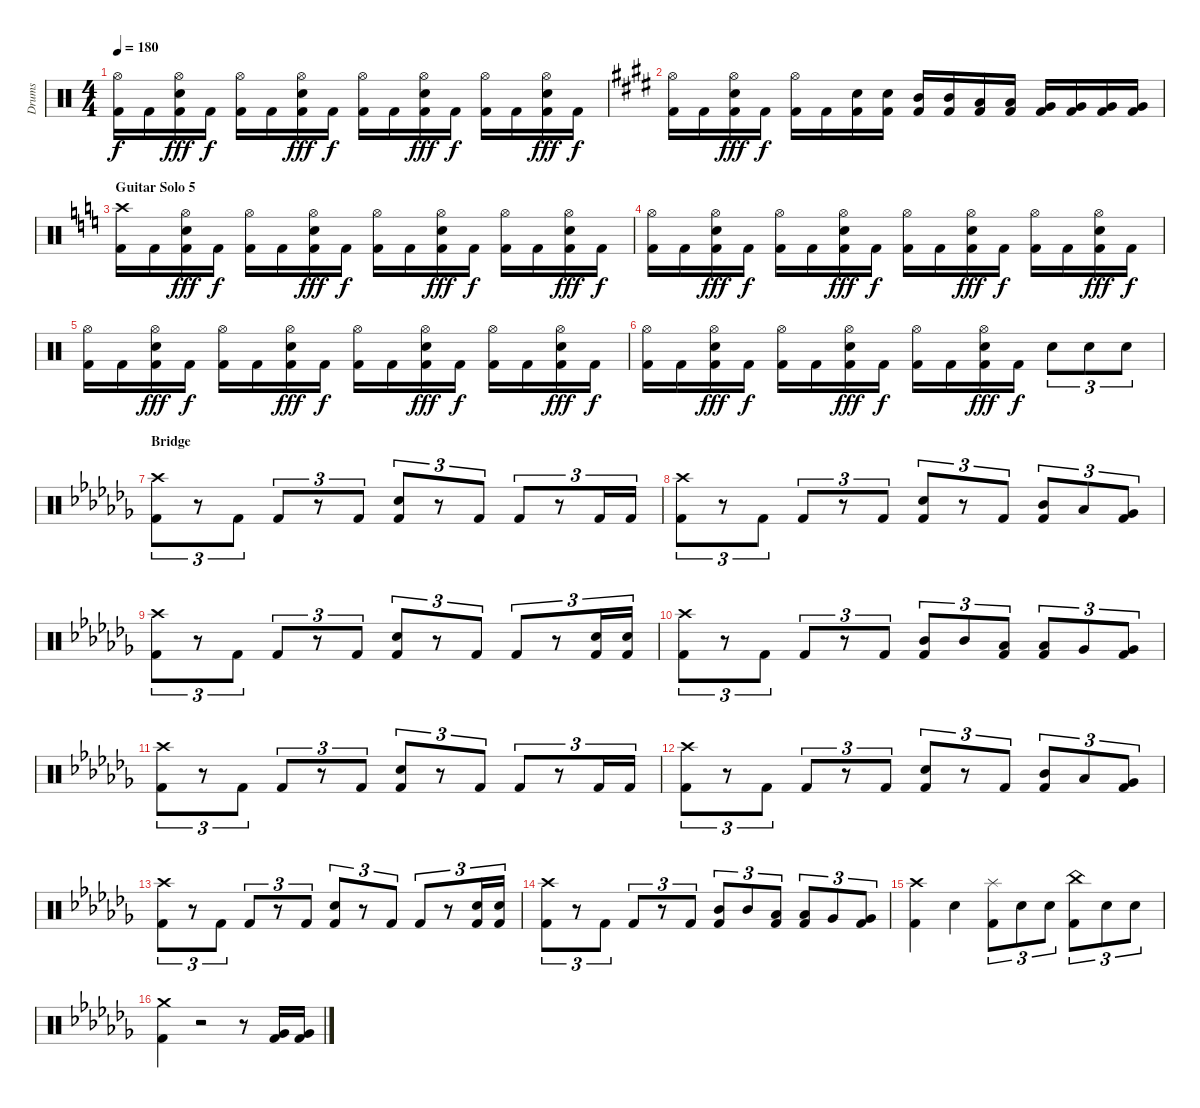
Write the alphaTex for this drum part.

\track ("Drums" "Drums") {instrument percussion}
\staff {score}
\articulation defaults
\ts (4 4)
\tempo 180
\clef neutral
\ks c
("Hi-Hat (open)" "Kick (hit) 2").16{dy f} "Kick (hit) 2".16 ("Hi-Hat (open)" "Snare (hit) 2" "Kick (hit) 2").16{dy fff} "Kick (hit) 2".16{dy f} ("Hi-Hat (open)" "Kick (hit) 2").16 "Kick (hit) 2".16 ("Hi-Hat (open)" "Snare (hit) 2" "Kick (hit) 2").16{dy fff} "Kick (hit) 2".16{dy f} ("Hi-Hat (open)" "Kick (hit) 2").16 "Kick (hit) 2".16 ("Hi-Hat (open)" "Snare (hit) 2" "Kick (hit) 2").16{dy fff} "Kick (hit) 2".16{dy f} ("Hi-Hat (open)" "Kick (hit) 2").16 "Kick (hit) 2".16 ("Hi-Hat (open)" "Snare (hit) 2" "Kick (hit) 2").16{dy fff} "Kick (hit) 2".16{dy f} |
\ks c#minor
("Hi-Hat (open)" "Kick (hit) 2").16 "Kick (hit) 2".16 ("Hi-Hat (open)" "Snare (hit) 2" "Kick (hit) 2").16{dy fff} "Kick (hit) 2".16{dy f} ("Hi-Hat (open)" "Kick (hit) 2").16 "Kick (hit) 2".16 ("Snare (hit) 2" "Kick (hit) 2").16 ("Snare (hit) 2" "Kick (hit) 2").16 ("Mid Tom (hit)" "Kick (hit) 2").16 ("Mid Tom (hit)" "Kick (hit) 2").16 ("Low Tom (hit)" "Kick (hit) 2").16 ("Low Tom (hit)" "Kick (hit) 2").16 ("Very Low Tom (hit)" "Kick (hit) 2").16 ("Very Low Tom (hit)" "Kick (hit) 2").16 ("Very Low Tom (hit)" "Kick (hit) 2").16 ("Very Low Tom (hit)" "Kick (hit) 2").16 |
\section ("" "Guitar Solo 5")
\ks c
("Crash high (hit)" "Kick (hit) 2").16 "Kick (hit) 2".16 ("Hi-Hat (open)" "Snare (hit) 2" "Kick (hit) 2").16{dy fff} "Kick (hit) 2".16{dy f} ("Hi-Hat (open)" "Kick (hit) 2").16 "Kick (hit) 2".16 ("Hi-Hat (open)" "Snare (hit) 2" "Kick (hit) 2").16{dy fff} "Kick (hit) 2".16{dy f} ("Hi-Hat (open)" "Kick (hit) 2").16 "Kick (hit) 2".16 ("Hi-Hat (open)" "Snare (hit) 2" "Kick (hit) 2").16{dy fff} "Kick (hit) 2".16{dy f} ("Hi-Hat (open)" "Kick (hit) 2").16 "Kick (hit) 2".16 ("Hi-Hat (open)" "Snare (hit) 2" "Kick (hit) 2").16{dy fff} "Kick (hit) 2".16{dy f} |
("Hi-Hat (open)" "Kick (hit) 2").16 "Kick (hit) 2".16 ("Hi-Hat (open)" "Snare (hit) 2" "Kick (hit) 2").16{dy fff} "Kick (hit) 2".16{dy f} ("Hi-Hat (open)" "Kick (hit) 2").16 "Kick (hit) 2".16 ("Hi-Hat (open)" "Snare (hit) 2" "Kick (hit) 2").16{dy fff} "Kick (hit) 2".16{dy f} ("Hi-Hat (open)" "Kick (hit) 2").16 "Kick (hit) 2".16 ("Hi-Hat (open)" "Snare (hit) 2" "Kick (hit) 2").16{dy fff} "Kick (hit) 2".16{dy f} ("Hi-Hat (open)" "Kick (hit) 2").16 "Kick (hit) 2".16 ("Hi-Hat (open)" "Snare (hit) 2" "Kick (hit) 2").16{dy fff} "Kick (hit) 2".16{dy f} |
("Hi-Hat (open)" "Kick (hit) 2").16 "Kick (hit) 2".16 ("Hi-Hat (open)" "Snare (hit) 2" "Kick (hit) 2").16{dy fff} "Kick (hit) 2".16{dy f} ("Hi-Hat (open)" "Kick (hit) 2").16 "Kick (hit) 2".16 ("Hi-Hat (open)" "Snare (hit) 2" "Kick (hit) 2").16{dy fff} "Kick (hit) 2".16{dy f} ("Hi-Hat (open)" "Kick (hit) 2").16 "Kick (hit) 2".16 ("Hi-Hat (open)" "Snare (hit) 2" "Kick (hit) 2").16{dy fff} "Kick (hit) 2".16{dy f} ("Hi-Hat (open)" "Kick (hit) 2").16 "Kick (hit) 2".16 ("Hi-Hat (open)" "Snare (hit) 2" "Kick (hit) 2").16{dy fff} "Kick (hit) 2".16{dy f} |
("Hi-Hat (open)" "Kick (hit) 2").16 "Kick (hit) 2".16 ("Hi-Hat (open)" "Snare (hit) 2" "Kick (hit) 2").16{dy fff} "Kick (hit) 2".16{dy f} ("Hi-Hat (open)" "Kick (hit) 2").16 "Kick (hit) 2".16 ("Hi-Hat (open)" "Snare (hit) 2" "Kick (hit) 2").16{dy fff} "Kick (hit) 2".16{dy f} ("Hi-Hat (open)" "Kick (hit) 2").16 "Kick (hit) 2".16 ("Hi-Hat (open)" "Snare (hit) 2" "Kick (hit) 2").16{dy fff} "Kick (hit) 2".16{dy f} "Snare (hit) 2".8{tu (3 2)} "Snare (hit) 2".8{tu (3 2)} "Snare (hit) 2".8{tu (3 2)} |
\section ("" "Bridge")
\ks abminor
("Crash high (hit)" "Kick (hit) 2").8{tu (3 2)} r.8{tu (3 2)} "Kick (hit) 2".8{tu (3 2)} "Kick (hit) 2".8{tu (3 2)} r.8{tu (3 2)} "Kick (hit) 2".8{tu (3 2)} ("Snare (hit) 2" "Kick (hit) 2").8{tu (3 2)} r.8{tu (3 2)} "Kick (hit) 2".8{tu (3 2)} "Kick (hit) 2".8{tu (3 2)} r.8{tu (3 2)} "Kick (hit) 2".16{tu (3 2)} "Kick (hit) 2".16{tu (3 2)} |
("Crash high (hit)" "Kick (hit) 2").8{tu (3 2)} r.8{tu (3 2)} "Kick (hit) 2".8{tu (3 2)} "Kick (hit) 2".8{tu (3 2)} r.8{tu (3 2)} "Kick (hit) 2".8{tu (3 2)} ("Snare (hit) 2" "Kick (hit) 2").8{tu (3 2)} r.8{tu (3 2)} "Kick (hit) 2".8{tu (3 2)} ("Mid Tom (hit)" "Kick (hit) 2").8{tu (3 2)} "Low Tom (hit)".8{tu (3 2)} ("Very Low Tom (hit)" "Kick (hit) 2").8{tu (3 2)} |
("Crash high (hit)" "Kick (hit) 2").8{tu (3 2)} r.8{tu (3 2)} "Kick (hit) 2".8{tu (3 2)} "Kick (hit) 2".8{tu (3 2)} r.8{tu (3 2)} "Kick (hit) 2".8{tu (3 2)} ("Snare (hit) 2" "Kick (hit) 2").8{tu (3 2)} r.8{tu (3 2)} "Kick (hit) 2".8{tu (3 2)} "Kick (hit) 2".8{tu (3 2)} r.8{tu (3 2)} ("Snare (hit) 2" "Kick (hit) 2").16{tu (3 2)} ("Snare (hit) 2" "Kick (hit) 2").16{tu (3 2)} |
("Crash high (hit)" "Kick (hit) 2").8{tu (3 2)} r.8{tu (3 2)} "Kick (hit) 2".8{tu (3 2)} "Kick (hit) 2".8{tu (3 2)} r.8{tu (3 2)} "Kick (hit) 2".8{tu (3 2)} ("Mid Tom (hit)" "Kick (hit) 2").8{tu (3 2)} "Mid Tom (hit)".8{tu (3 2)} ("Low Tom (hit)" "Kick (hit) 2").8{tu (3 2)} ("Low Tom (hit)" "Kick (hit) 2").8{tu (3 2)} "Very Low Tom (hit)".8{tu (3 2)} ("Very Low Tom (hit)" "Kick (hit) 2").8{tu (3 2)} |
("Crash high (hit)" "Kick (hit) 2").8{tu (3 2)} r.8{tu (3 2)} "Kick (hit) 2".8{tu (3 2)} "Kick (hit) 2".8{tu (3 2)} r.8{tu (3 2)} "Kick (hit) 2".8{tu (3 2)} ("Snare (hit) 2" "Kick (hit) 2").8{tu (3 2)} r.8{tu (3 2)} "Kick (hit) 2".8{tu (3 2)} "Kick (hit) 2".8{tu (3 2)} r.8{tu (3 2)} "Kick (hit) 2".16{tu (3 2)} "Kick (hit) 2".16{tu (3 2)} |
("Crash high (hit)" "Kick (hit) 2").8{tu (3 2)} r.8{tu (3 2)} "Kick (hit) 2".8{tu (3 2)} "Kick (hit) 2".8{tu (3 2)} r.8{tu (3 2)} "Kick (hit) 2".8{tu (3 2)} ("Snare (hit) 2" "Kick (hit) 2").8{tu (3 2)} r.8{tu (3 2)} "Kick (hit) 2".8{tu (3 2)} ("Mid Tom (hit)" "Kick (hit) 2").8{tu (3 2)} "Low Tom (hit)".8{tu (3 2)} ("Very Low Tom (hit)" "Kick (hit) 2").8{tu (3 2)} |
("Crash high (hit)" "Kick (hit) 2").8{tu (3 2)} r.8{tu (3 2)} "Kick (hit) 2".8{tu (3 2)} "Kick (hit) 2".8{tu (3 2)} r.8{tu (3 2)} "Kick (hit) 2".8{tu (3 2)} ("Snare (hit) 2" "Kick (hit) 2").8{tu (3 2)} r.8{tu (3 2)} "Kick (hit) 2".8{tu (3 2)} "Kick (hit) 2".8{tu (3 2)} r.8{tu (3 2)} ("Snare (hit) 2" "Kick (hit) 2").16{tu (3 2)} ("Snare (hit) 2" "Kick (hit) 2").16{tu (3 2)} |
("Crash high (hit)" "Kick (hit) 2").8{tu (3 2)} r.8{tu (3 2)} "Kick (hit) 2".8{tu (3 2)} "Kick (hit) 2".8{tu (3 2)} r.8{tu (3 2)} "Kick (hit) 2".8{tu (3 2)} ("Mid Tom (hit)" "Kick (hit) 2").8{tu (3 2)} "Mid Tom (hit)".8{tu (3 2)} ("Low Tom (hit)" "Kick (hit) 2").8{tu (3 2)} ("Low Tom (hit)" "Kick (hit) 2").8{tu (3 2)} "Very Low Tom (hit)".8{tu (3 2)} ("Very Low Tom (hit)" "Kick (hit) 2").8{tu (3 2)} |
("Crash high (hit)" "Kick (hit) 2").4 "Snare (hit) 2".4 ("Splash (hit)" "Kick (hit) 2").8{tu (3 2)} "Snare (hit) 2".8{tu (3 2)} "Snare (hit) 2".8{tu (3 2)} ("China (hit)" "Kick (hit) 2").8{tu (3 2)} "Snare (hit) 2".8{tu (3 2)} "Snare (hit) 2".8{tu (3 2)} |
("Crash medium (hit)" "Kick (hit) 2").4 r.2 r.8 ("Very Low Tom (hit)" "Kick (hit) 2").16 ("Very Low Tom (hit)" "Kick (hit) 2").16
